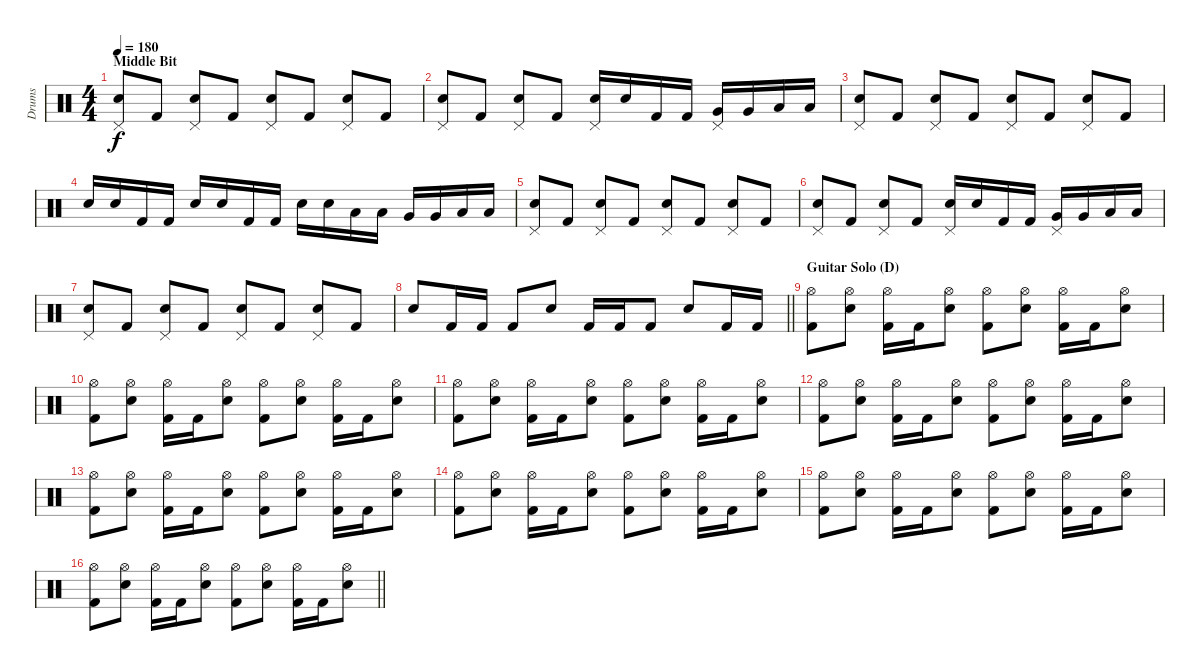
\track ("Drums" "Drums") {instrument percussion}
\staff {score}
\articulation defaults
\ts (4 4)
\section ("" "Middle Bit")
\tempo 180
\clef neutral
\ks c
("Pedal Hi-Hat (hit)" "Snare (hit) 2").8{dy f} "Kick (hit) 2".8 ("Pedal Hi-Hat (hit)" "Snare (hit) 2").8 "Kick (hit) 2".8 ("Pedal Hi-Hat (hit)" "Snare (hit) 2").8 "Kick (hit) 2".8 ("Pedal Hi-Hat (hit)" "Snare (hit) 2").8 "Kick (hit) 2".8 |
("Pedal Hi-Hat (hit)" "Snare (hit) 2").8 "Kick (hit) 2".8 ("Pedal Hi-Hat (hit)" "Snare (hit) 2").8 "Kick (hit) 2".8 ("Pedal Hi-Hat (hit)" "Snare (hit) 2").16 "Snare (hit) 2".16 "Kick (hit) 2".16 "Kick (hit) 2".16 ("Pedal Hi-Hat (hit)" "Very Low Tom (hit)").16 "Very Low Tom (hit)".16 "Low Floor Tom (hit)".16 "Low Floor Tom (hit)".16 |
("Pedal Hi-Hat (hit)" "Snare (hit) 2").8 "Kick (hit) 2".8 ("Pedal Hi-Hat (hit)" "Snare (hit) 2").8 "Kick (hit) 2".8 ("Pedal Hi-Hat (hit)" "Snare (hit) 2").8 "Kick (hit) 2".8 ("Pedal Hi-Hat (hit)" "Snare (hit) 2").8 "Kick (hit) 2".8 |
"Snare (hit) 2".16 "Snare (hit) 2".16 "Kick (hit) 2".16 "Kick (hit) 2".16 "Snare (hit) 2".16 "Snare (hit) 2".16 "Kick (hit) 2".16 "Kick (hit) 2".16 "Snare (hit) 2".16 "Snare (hit) 2".16 "Low Tom (hit)".16 "Low Tom (hit)".16 "Very Low Tom (hit)".16 "Very Low Tom (hit)".16 "Low Floor Tom (hit)".16 "Low Floor Tom (hit)".16 |
("Pedal Hi-Hat (hit)" "Snare (hit) 2").8 "Kick (hit) 2".8 ("Pedal Hi-Hat (hit)" "Snare (hit) 2").8 "Kick (hit) 2".8 ("Pedal Hi-Hat (hit)" "Snare (hit) 2").8 "Kick (hit) 2".8 ("Pedal Hi-Hat (hit)" "Snare (hit) 2").8 "Kick (hit) 2".8 |
("Pedal Hi-Hat (hit)" "Snare (hit) 2").8 "Kick (hit) 2".8 ("Pedal Hi-Hat (hit)" "Snare (hit) 2").8 "Kick (hit) 2".8 ("Pedal Hi-Hat (hit)" "Snare (hit) 2").16 "Snare (hit) 2".16 "Kick (hit) 2".16 "Kick (hit) 2".16 ("Pedal Hi-Hat (hit)" "Very Low Tom (hit)").16 "Very Low Tom (hit)".16 "Low Floor Tom (hit)".16 "Low Floor Tom (hit)".16 |
("Pedal Hi-Hat (hit)" "Snare (hit) 2").8 "Kick (hit) 2".8 ("Pedal Hi-Hat (hit)" "Snare (hit) 2").8 "Kick (hit) 2".8 ("Pedal Hi-Hat (hit)" "Snare (hit) 2").8 "Kick (hit) 2".8 ("Pedal Hi-Hat (hit)" "Snare (hit) 2").8 "Kick (hit) 2".8 |
\barLineRight lightlight "Snare (hit) 2".8 "Kick (hit) 2".16 "Kick (hit) 2".16 "Kick (hit) 2".8 "Snare (hit) 2".8 "Kick (hit) 2".16 "Kick (hit) 2".16 "Kick (hit) 2".8 "Snare (hit) 2".8 "Kick (hit) 2".16 "Kick (hit) 2".16
|
\section ("" "Guitar Solo (D)")
("Hi-Hat (open)" "Kick (hit) 2").8 ("Hi-Hat (open)" "Snare (hit) 2").8 ("Hi-Hat (open)" "Kick (hit) 2").16 "Kick (hit) 2".16 ("Hi-Hat (open)" "Snare (hit) 2").8 ("Hi-Hat (open)" "Kick (hit) 2").8 ("Hi-Hat (open)" "Snare (hit) 2").8 ("Hi-Hat (open)" "Kick (hit) 2").16 "Kick (hit) 2".16 ("Hi-Hat (open)" "Snare (hit) 2").8 |
("Hi-Hat (open)" "Kick (hit) 2").8 ("Hi-Hat (open)" "Snare (hit) 2").8 ("Hi-Hat (open)" "Kick (hit) 2").16 "Kick (hit) 2".16 ("Hi-Hat (open)" "Snare (hit) 2").8 ("Hi-Hat (open)" "Kick (hit) 2").8 ("Hi-Hat (open)" "Snare (hit) 2").8 ("Hi-Hat (open)" "Kick (hit) 2").16 "Kick (hit) 2".16 ("Hi-Hat (open)" "Snare (hit) 2").8 |
("Hi-Hat (open)" "Kick (hit) 2").8 ("Hi-Hat (open)" "Snare (hit) 2").8 ("Hi-Hat (open)" "Kick (hit) 2").16 "Kick (hit) 2".16 ("Hi-Hat (open)" "Snare (hit) 2").8 ("Hi-Hat (open)" "Kick (hit) 2").8 ("Hi-Hat (open)" "Snare (hit) 2").8 ("Hi-Hat (open)" "Kick (hit) 2").16 "Kick (hit) 2".16 ("Hi-Hat (open)" "Snare (hit) 2").8 |
("Hi-Hat (open)" "Kick (hit) 2").8 ("Hi-Hat (open)" "Snare (hit) 2").8 ("Hi-Hat (open)" "Kick (hit) 2").16 "Kick (hit) 2".16 ("Hi-Hat (open)" "Snare (hit) 2").8 ("Hi-Hat (open)" "Kick (hit) 2").8 ("Hi-Hat (open)" "Snare (hit) 2").8 ("Hi-Hat (open)" "Kick (hit) 2").16 "Kick (hit) 2".16 ("Hi-Hat (open)" "Snare (hit) 2").8 |
("Hi-Hat (open)" "Kick (hit) 2").8 ("Hi-Hat (open)" "Snare (hit) 2").8 ("Hi-Hat (open)" "Kick (hit) 2").16 "Kick (hit) 2".16 ("Hi-Hat (open)" "Snare (hit) 2").8 ("Hi-Hat (open)" "Kick (hit) 2").8 ("Hi-Hat (open)" "Snare (hit) 2").8 ("Hi-Hat (open)" "Kick (hit) 2").16 "Kick (hit) 2".16 ("Hi-Hat (open)" "Snare (hit) 2").8 |
("Hi-Hat (open)" "Kick (hit) 2").8 ("Hi-Hat (open)" "Snare (hit) 2").8 ("Hi-Hat (open)" "Kick (hit) 2").16 "Kick (hit) 2".16 ("Hi-Hat (open)" "Snare (hit) 2").8 ("Hi-Hat (open)" "Kick (hit) 2").8 ("Hi-Hat (open)" "Snare (hit) 2").8 ("Hi-Hat (open)" "Kick (hit) 2").16 "Kick (hit) 2".16 ("Hi-Hat (open)" "Snare (hit) 2").8 |
("Hi-Hat (open)" "Kick (hit) 2").8 ("Hi-Hat (open)" "Snare (hit) 2").8 ("Hi-Hat (open)" "Kick (hit) 2").16 "Kick (hit) 2".16 ("Hi-Hat (open)" "Snare (hit) 2").8 ("Hi-Hat (open)" "Kick (hit) 2").8 ("Hi-Hat (open)" "Snare (hit) 2").8 ("Hi-Hat (open)" "Kick (hit) 2").16 "Kick (hit) 2".16 ("Hi-Hat (open)" "Snare (hit) 2").8 |
\barLineRight lightlight
("Hi-Hat (open)" "Kick (hit) 2").8 ("Hi-Hat (open)" "Snare (hit) 2").8 ("Hi-Hat (open)" "Kick (hit) 2").16 "Kick (hit) 2".16 ("Hi-Hat (open)" "Snare (hit) 2").8 ("Hi-Hat (open)" "Kick (hit) 2").8 ("Hi-Hat (open)" "Snare (hit) 2").8 ("Hi-Hat (open)" "Kick (hit) 2").16 "Kick (hit) 2".16 ("Hi-Hat (open)" "Snare (hit) 2").8
